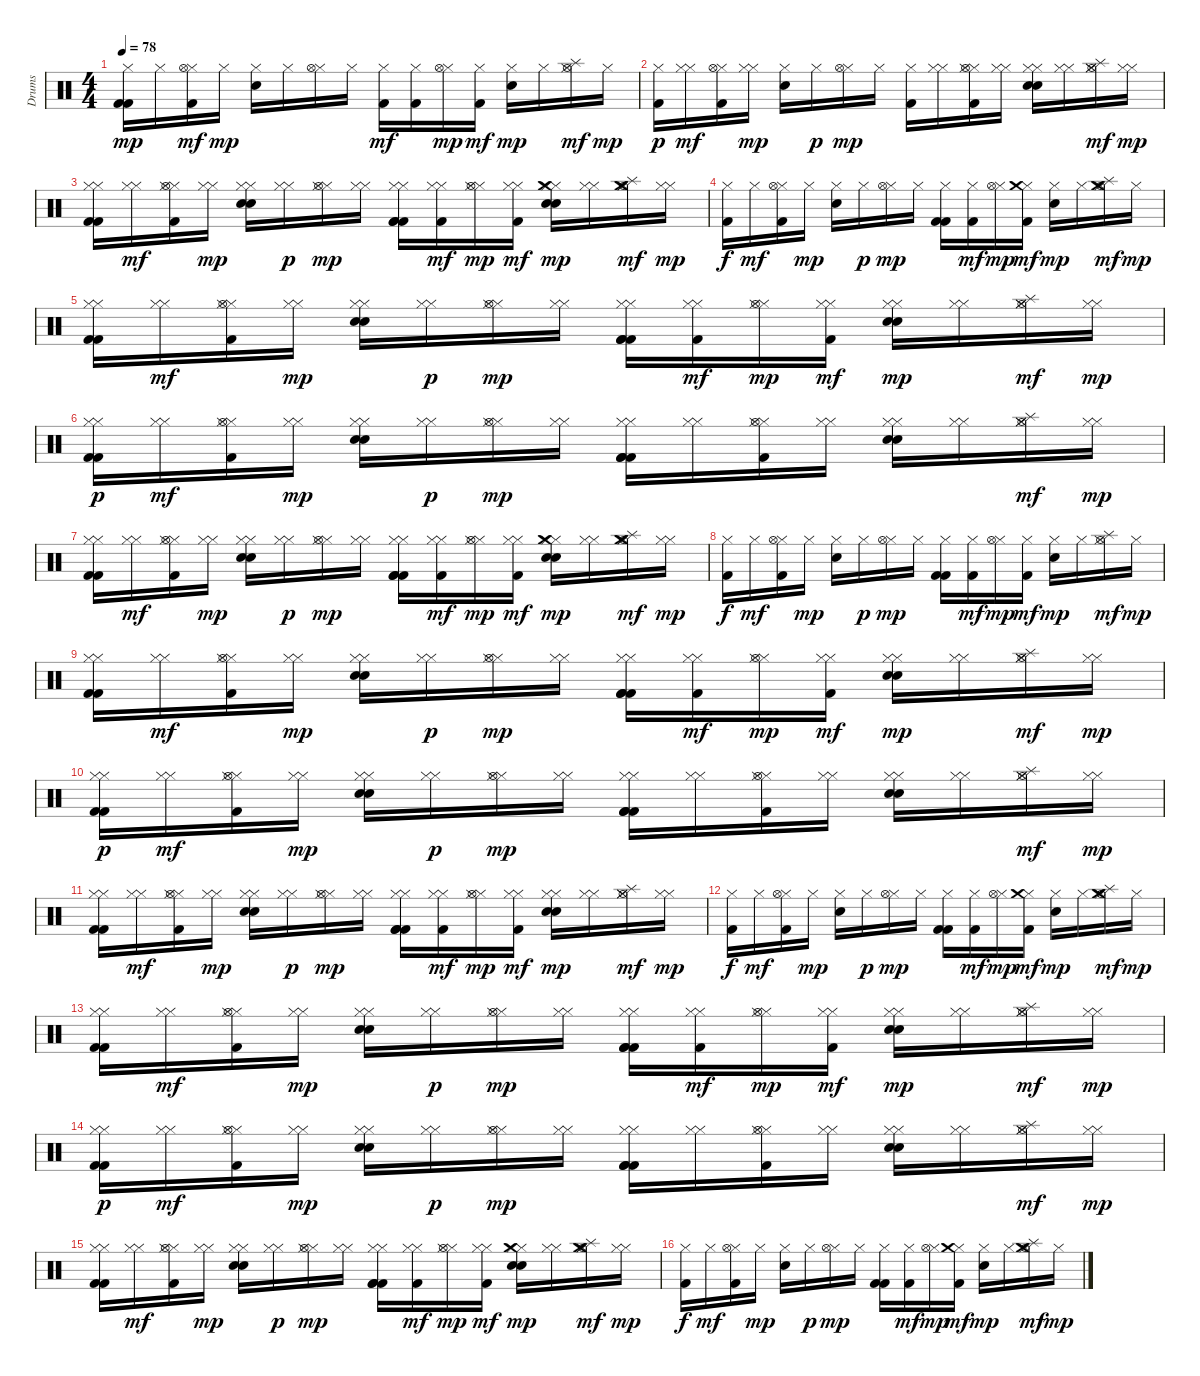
\track ("Drums" "Drums") {instrument percussion}
\staff {score}
\articulation defaults
\ts (4 4)
\tempo 78
\clef neutral
\ks c
("Kick (hit) 2" "Hi-Hat (closed)" "Kick (hit) 2").16{dy mp} "Hi-Hat (closed)".16 ("Hi-Hat (closed)" "Kick (hit) 2" "Hi-Hat (open)").16{dy mf} "Hi-Hat (closed)".16{dy mp} ("Snare (hit) 2" "Hi-Hat (closed)").16 "Hi-Hat (closed)".16 ("Hi-Hat (closed)" "Hi-Hat (open)").16 "Hi-Hat (closed)".16 ("Kick (hit) 2" "Hi-Hat (closed)").16{dy mf} ("Hi-Hat (closed)" "Kick (hit) 2").16 ("Hi-Hat (closed)" "Hi-Hat (open)").16{dy mp} ("Hi-Hat (closed)" "Kick (hit) 2").16{dy mf} ("Snare (hit) 2" "Hi-Hat (closed)").16{dy mp} "Hi-Hat (closed)".16 ("Hi-Hat (closed)" "Hi-Hat (open)" "Splash (hit)").16{dy mf} "Hi-Hat (closed)".16{dy mp} |
("Hi-Hat (closed)" "Kick (hit) 2").16{dy p} ("Hi-Hat (closed)" "Hi-Hat (closed)").16{dy mf} ("Hi-Hat (closed)" "Kick (hit) 2" "Hi-Hat (open)").16 ("Hi-Hat (closed)" "Hi-Hat (closed)").16{dy mp} ("Snare (hit) 2" "Hi-Hat (closed)").16 "Hi-Hat (closed)".16{dy p} ("Hi-Hat (closed)" "Hi-Hat (open)").16{dy mp} "Hi-Hat (closed)".16 ("Kick (hit) 2" "Hi-Hat (closed)").16 ("Hi-Hat (closed)" "Hi-Hat (closed)").16 ("Kick (hit) 2" "Hi-Hat (closed)" "Hi-Hat (closed)" "Hi-Hat (open)").16 ("Hi-Hat (closed)" "Hi-Hat (closed)").16 ("Snare (hit) 2" "Hi-Hat (closed)" "Snare (hit) 2" "Hi-Hat (closed)").16 ("Hi-Hat (closed)" "Hi-Hat (closed)").16 ("Hi-Hat (closed)" "Hi-Hat (closed)" "Hi-Hat (open)" "Splash (hit)").16{dy mf} ("Hi-Hat (closed)" "Hi-Hat (closed)").16{dy mp} |
("Kick (hit) 2" "Hi-Hat (closed)" "Kick (hit) 2" "Hi-Hat (closed)").16 ("Hi-Hat (closed)" "Hi-Hat (closed)").16{dy mf} ("Hi-Hat (closed)" "Hi-Hat (closed)" "Kick (hit) 2" "Hi-Hat (open)").16 ("Hi-Hat (closed)" "Hi-Hat (closed)").16{dy mp} ("Snare (hit) 2" "Hi-Hat (closed)" "Snare (hit) 2" "Hi-Hat (closed)").16 ("Hi-Hat (closed)" "Hi-Hat (closed)").16{dy p} ("Hi-Hat (closed)" "Hi-Hat (closed)" "Hi-Hat (open)").16{dy mp} ("Hi-Hat (closed)" "Hi-Hat (closed)").16 ("Kick (hit) 2" "Hi-Hat (closed)" "Kick (hit) 2" "Hi-Hat (closed)" "Kick (hit) 2").16 ("Hi-Hat (closed)" "Hi-Hat (closed)" "Kick (hit) 2").16{dy mf} ("Hi-Hat (closed)" "Hi-Hat (closed)" "Hi-Hat (open)").16{dy mp} ("Hi-Hat (closed)" "Hi-Hat (closed)" "Kick (hit) 2").16{dy mf} ("Snare (hit) 2" "Hi-Hat (closed)" "Snare (hit) 2" "Hi-Hat (closed)" "Crash medium (hit)").16{dy mp} ("Hi-Hat (closed)" "Hi-Hat (closed)").16 ("Hi-Hat (closed)" "Hi-Hat (closed)" "Hi-Hat (open)" "Splash (hit)" "Crash medium (hit)").16{dy mf} ("Hi-Hat (closed)" "Hi-Hat (closed)").16{dy mp} |
("Kick (hit) 2" "Hi-Hat (closed)").16{dy f} "Hi-Hat (closed)".16{dy mf} ("Hi-Hat (closed)" "Kick (hit) 2" "Hi-Hat (open)").16 "Hi-Hat (closed)".16{dy mp} ("Snare (hit) 2" "Hi-Hat (closed)").16 "Hi-Hat (closed)".16{dy p} ("Hi-Hat (closed)" "Hi-Hat (open)").16{dy mp} "Hi-Hat (closed)".16 ("Kick (hit) 2" "Hi-Hat (closed)" "Kick (hit) 2").16 ("Hi-Hat (closed)" "Kick (hit) 2").16{dy mf} ("Hi-Hat (closed)" "Hi-Hat (open)").16{dy mp} ("Hi-Hat (closed)" "Kick (hit) 2" "Crash medium (hit)").16{dy mf} ("Snare (hit) 2" "Hi-Hat (closed)").16{dy mp} "Hi-Hat (closed)".16 ("Crash medium (hit)" "Hi-Hat (closed)" "Hi-Hat (open)" "Splash (hit)").16{dy mf} "Hi-Hat (closed)".16{dy mp} |
("Kick (hit) 2" "Hi-Hat (closed)" "Kick (hit) 2" "Hi-Hat (closed)").16 ("Hi-Hat (closed)" "Hi-Hat (closed)").16{dy mf} ("Hi-Hat (closed)" "Hi-Hat (closed)" "Kick (hit) 2" "Hi-Hat (open)").16 ("Hi-Hat (closed)" "Hi-Hat (closed)").16{dy mp} ("Snare (hit) 2" "Hi-Hat (closed)" "Snare (hit) 2" "Hi-Hat (closed)").16 ("Hi-Hat (closed)" "Hi-Hat (closed)").16{dy p} ("Hi-Hat (closed)" "Hi-Hat (closed)" "Hi-Hat (open)").16{dy mp} ("Hi-Hat (closed)" "Hi-Hat (closed)").16 ("Kick (hit) 2" "Hi-Hat (closed)" "Kick (hit) 2" "Hi-Hat (closed)" "Kick (hit) 2").16 ("Hi-Hat (closed)" "Hi-Hat (closed)" "Kick (hit) 2").16{dy mf} ("Hi-Hat (closed)" "Hi-Hat (closed)" "Hi-Hat (open)").16{dy mp} ("Hi-Hat (closed)" "Hi-Hat (closed)" "Kick (hit) 2").16{dy mf} ("Snare (hit) 2" "Hi-Hat (closed)" "Snare (hit) 2" "Hi-Hat (closed)").16{dy mp} ("Hi-Hat (closed)" "Hi-Hat (closed)").16 ("Hi-Hat (closed)" "Hi-Hat (closed)" "Hi-Hat (open)" "Splash (hit)").16{dy mf} ("Hi-Hat (closed)" "Hi-Hat (closed)").16{dy mp} |
("Kick (hit) 2" "Hi-Hat (closed)" "Kick (hit) 2" "Hi-Hat (closed)").16{dy p} ("Hi-Hat (closed)" "Hi-Hat (closed)").16{dy mf} ("Hi-Hat (closed)" "Hi-Hat (closed)" "Kick (hit) 2" "Hi-Hat (open)").16 ("Hi-Hat (closed)" "Hi-Hat (closed)").16{dy mp} ("Snare (hit) 2" "Hi-Hat (closed)" "Snare (hit) 2" "Hi-Hat (closed)").16 ("Hi-Hat (closed)" "Hi-Hat (closed)").16{dy p} ("Hi-Hat (closed)" "Hi-Hat (closed)" "Hi-Hat (open)").16{dy mp} ("Hi-Hat (closed)" "Hi-Hat (closed)").16 ("Kick (hit) 2" "Hi-Hat (closed)" "Kick (hit) 2" "Hi-Hat (closed)" "Kick (hit) 2").16 ("Hi-Hat (closed)" "Hi-Hat (closed)").16 ("Kick (hit) 2" "Hi-Hat (closed)" "Hi-Hat (closed)" "Hi-Hat (open)").16 ("Hi-Hat (closed)" "Hi-Hat (closed)").16 ("Snare (hit) 2" "Hi-Hat (closed)" "Snare (hit) 2" "Hi-Hat (closed)").16 ("Hi-Hat (closed)" "Hi-Hat (closed)").16 ("Hi-Hat (closed)" "Hi-Hat (closed)" "Hi-Hat (open)" "Splash (hit)").16{dy mf} ("Hi-Hat (closed)" "Hi-Hat (closed)").16{dy mp} |
("Kick (hit) 2" "Hi-Hat (closed)" "Kick (hit) 2" "Hi-Hat (closed)").16 ("Hi-Hat (closed)" "Hi-Hat (closed)").16{dy mf} ("Hi-Hat (closed)" "Hi-Hat (closed)" "Kick (hit) 2" "Hi-Hat (open)").16 ("Hi-Hat (closed)" "Hi-Hat (closed)").16{dy mp} ("Snare (hit) 2" "Hi-Hat (closed)" "Snare (hit) 2" "Hi-Hat (closed)").16 ("Hi-Hat (closed)" "Hi-Hat (closed)").16{dy p} ("Hi-Hat (closed)" "Hi-Hat (closed)" "Hi-Hat (open)").16{dy mp} ("Hi-Hat (closed)" "Hi-Hat (closed)").16 ("Kick (hit) 2" "Hi-Hat (closed)" "Kick (hit) 2" "Hi-Hat (closed)" "Kick (hit) 2").16 ("Hi-Hat (closed)" "Hi-Hat (closed)" "Kick (hit) 2").16{dy mf} ("Hi-Hat (closed)" "Hi-Hat (closed)" "Hi-Hat (open)").16{dy mp} ("Hi-Hat (closed)" "Hi-Hat (closed)" "Kick (hit) 2").16{dy mf} ("Snare (hit) 2" "Hi-Hat (closed)" "Snare (hit) 2" "Hi-Hat (closed)" "Crash medium (hit)").16{dy mp} ("Hi-Hat (closed)" "Hi-Hat (closed)").16 ("Hi-Hat (closed)" "Hi-Hat (closed)" "Hi-Hat (open)" "Splash (hit)" "Crash medium (hit)").16{dy mf} ("Hi-Hat (closed)" "Hi-Hat (closed)").16{dy mp} |
("Kick (hit) 2" "Hi-Hat (closed)").16{dy f} "Hi-Hat (closed)".16{dy mf} ("Hi-Hat (closed)" "Kick (hit) 2" "Hi-Hat (open)").16 "Hi-Hat (closed)".16{dy mp} ("Snare (hit) 2" "Hi-Hat (closed)").16 "Hi-Hat (closed)".16{dy p} ("Hi-Hat (closed)" "Hi-Hat (open)").16{dy mp} "Hi-Hat (closed)".16 ("Kick (hit) 2" "Hi-Hat (closed)" "Kick (hit) 2").16 ("Hi-Hat (closed)" "Kick (hit) 2").16{dy mf} ("Hi-Hat (closed)" "Hi-Hat (open)").16{dy mp} ("Hi-Hat (closed)" "Kick (hit) 2").16{dy mf} ("Snare (hit) 2" "Hi-Hat (closed)").16{dy mp} "Hi-Hat (closed)".16 ("Hi-Hat (closed)" "Hi-Hat (open)" "Splash (hit)").16{dy mf} "Hi-Hat (closed)".16{dy mp} |
("Kick (hit) 2" "Hi-Hat (closed)" "Kick (hit) 2" "Hi-Hat (closed)").16 ("Hi-Hat (closed)" "Hi-Hat (closed)").16{dy mf} ("Hi-Hat (closed)" "Hi-Hat (closed)" "Kick (hit) 2" "Hi-Hat (open)").16 ("Hi-Hat (closed)" "Hi-Hat (closed)").16{dy mp} ("Snare (hit) 2" "Hi-Hat (closed)" "Snare (hit) 2" "Hi-Hat (closed)").16 ("Hi-Hat (closed)" "Hi-Hat (closed)").16{dy p} ("Hi-Hat (closed)" "Hi-Hat (closed)" "Hi-Hat (open)").16{dy mp} ("Hi-Hat (closed)" "Hi-Hat (closed)").16 ("Kick (hit) 2" "Hi-Hat (closed)" "Kick (hit) 2" "Hi-Hat (closed)" "Kick (hit) 2").16 ("Hi-Hat (closed)" "Hi-Hat (closed)" "Kick (hit) 2").16{dy mf} ("Hi-Hat (closed)" "Hi-Hat (closed)" "Hi-Hat (open)").16{dy mp} ("Hi-Hat (closed)" "Hi-Hat (closed)" "Kick (hit) 2").16{dy mf} ("Snare (hit) 2" "Hi-Hat (closed)" "Snare (hit) 2" "Hi-Hat (closed)").16{dy mp} ("Hi-Hat (closed)" "Hi-Hat (closed)").16 ("Hi-Hat (closed)" "Hi-Hat (closed)" "Hi-Hat (open)" "Splash (hit)").16{dy mf} ("Hi-Hat (closed)" "Hi-Hat (closed)").16{dy mp} |
("Kick (hit) 2" "Hi-Hat (closed)" "Kick (hit) 2" "Hi-Hat (closed)").16{dy p} ("Hi-Hat (closed)" "Hi-Hat (closed)").16{dy mf} ("Hi-Hat (closed)" "Hi-Hat (closed)" "Kick (hit) 2" "Hi-Hat (open)").16 ("Hi-Hat (closed)" "Hi-Hat (closed)").16{dy mp} ("Snare (hit) 2" "Hi-Hat (closed)" "Snare (hit) 2" "Hi-Hat (closed)").16 ("Hi-Hat (closed)" "Hi-Hat (closed)").16{dy p} ("Hi-Hat (closed)" "Hi-Hat (closed)" "Hi-Hat (open)").16{dy mp} ("Hi-Hat (closed)" "Hi-Hat (closed)").16 ("Kick (hit) 2" "Hi-Hat (closed)" "Kick (hit) 2" "Hi-Hat (closed)" "Kick (hit) 2").16 ("Hi-Hat (closed)" "Hi-Hat (closed)").16 ("Kick (hit) 2" "Hi-Hat (closed)" "Hi-Hat (closed)" "Hi-Hat (open)").16 ("Hi-Hat (closed)" "Hi-Hat (closed)").16 ("Snare (hit) 2" "Hi-Hat (closed)" "Snare (hit) 2" "Hi-Hat (closed)").16 ("Hi-Hat (closed)" "Hi-Hat (closed)").16 ("Hi-Hat (closed)" "Hi-Hat (closed)" "Hi-Hat (open)" "Splash (hit)").16{dy mf} ("Hi-Hat (closed)" "Hi-Hat (closed)").16{dy mp} |
("Kick (hit) 2" "Hi-Hat (closed)" "Kick (hit) 2" "Hi-Hat (closed)").16 ("Hi-Hat (closed)" "Hi-Hat (closed)").16{dy mf} ("Hi-Hat (closed)" "Hi-Hat (closed)" "Kick (hit) 2" "Hi-Hat (open)").16 ("Hi-Hat (closed)" "Hi-Hat (closed)").16{dy mp} ("Snare (hit) 2" "Hi-Hat (closed)" "Snare (hit) 2" "Hi-Hat (closed)").16 ("Hi-Hat (closed)" "Hi-Hat (closed)").16{dy p} ("Hi-Hat (closed)" "Hi-Hat (closed)" "Hi-Hat (open)").16{dy mp} ("Hi-Hat (closed)" "Hi-Hat (closed)").16 ("Kick (hit) 2" "Hi-Hat (closed)" "Kick (hit) 2" "Hi-Hat (closed)" "Kick (hit) 2").16 ("Hi-Hat (closed)" "Hi-Hat (closed)" "Kick (hit) 2").16{dy mf} ("Hi-Hat (closed)" "Hi-Hat (closed)" "Hi-Hat (open)").16{dy mp} ("Hi-Hat (closed)" "Hi-Hat (closed)" "Kick (hit) 2").16{dy mf} ("Snare (hit) 2" "Hi-Hat (closed)" "Snare (hit) 2" "Hi-Hat (closed)").16{dy mp} ("Hi-Hat (closed)" "Hi-Hat (closed)").16 ("Hi-Hat (closed)" "Hi-Hat (closed)" "Hi-Hat (open)" "Splash (hit)").16{dy mf} ("Hi-Hat (closed)" "Hi-Hat (closed)").16{dy mp} |
("Kick (hit) 2" "Hi-Hat (closed)").16{dy f} "Hi-Hat (closed)".16{dy mf} ("Hi-Hat (closed)" "Kick (hit) 2" "Hi-Hat (open)").16 "Hi-Hat (closed)".16{dy mp} ("Snare (hit) 2" "Hi-Hat (closed)").16 "Hi-Hat (closed)".16{dy p} ("Hi-Hat (closed)" "Hi-Hat (open)").16{dy mp} "Hi-Hat (closed)".16 ("Kick (hit) 2" "Hi-Hat (closed)" "Kick (hit) 2").16 ("Hi-Hat (closed)" "Kick (hit) 2").16{dy mf} ("Hi-Hat (closed)" "Hi-Hat (open)").16{dy mp} ("Hi-Hat (closed)" "Kick (hit) 2" "Crash medium (hit)").16{dy mf} ("Snare (hit) 2" "Hi-Hat (closed)").16{dy mp} "Hi-Hat (closed)".16 ("Crash medium (hit)" "Hi-Hat (closed)" "Hi-Hat (open)" "Splash (hit)").16{dy mf} "Hi-Hat (closed)".16{dy mp} |
("Kick (hit) 2" "Hi-Hat (closed)" "Kick (hit) 2" "Hi-Hat (closed)").16 ("Hi-Hat (closed)" "Hi-Hat (closed)").16{dy mf} ("Hi-Hat (closed)" "Hi-Hat (closed)" "Kick (hit) 2" "Hi-Hat (open)").16 ("Hi-Hat (closed)" "Hi-Hat (closed)").16{dy mp} ("Snare (hit) 2" "Hi-Hat (closed)" "Snare (hit) 2" "Hi-Hat (closed)").16 ("Hi-Hat (closed)" "Hi-Hat (closed)").16{dy p} ("Hi-Hat (closed)" "Hi-Hat (closed)" "Hi-Hat (open)").16{dy mp} ("Hi-Hat (closed)" "Hi-Hat (closed)").16 ("Kick (hit) 2" "Hi-Hat (closed)" "Kick (hit) 2" "Hi-Hat (closed)" "Kick (hit) 2").16 ("Hi-Hat (closed)" "Hi-Hat (closed)" "Kick (hit) 2").16{dy mf} ("Hi-Hat (closed)" "Hi-Hat (closed)" "Hi-Hat (open)").16{dy mp} ("Hi-Hat (closed)" "Hi-Hat (closed)" "Kick (hit) 2").16{dy mf} ("Snare (hit) 2" "Hi-Hat (closed)" "Snare (hit) 2" "Hi-Hat (closed)").16{dy mp} ("Hi-Hat (closed)" "Hi-Hat (closed)").16 ("Hi-Hat (closed)" "Hi-Hat (closed)" "Hi-Hat (open)" "Splash (hit)").16{dy mf} ("Hi-Hat (closed)" "Hi-Hat (closed)").16{dy mp} |
("Kick (hit) 2" "Hi-Hat (closed)" "Kick (hit) 2" "Hi-Hat (closed)").16{dy p} ("Hi-Hat (closed)" "Hi-Hat (closed)").16{dy mf} ("Hi-Hat (closed)" "Hi-Hat (closed)" "Kick (hit) 2" "Hi-Hat (open)").16 ("Hi-Hat (closed)" "Hi-Hat (closed)").16{dy mp} ("Snare (hit) 2" "Hi-Hat (closed)" "Snare (hit) 2" "Hi-Hat (closed)").16 ("Hi-Hat (closed)" "Hi-Hat (closed)").16{dy p} ("Hi-Hat (closed)" "Hi-Hat (closed)" "Hi-Hat (open)").16{dy mp} ("Hi-Hat (closed)" "Hi-Hat (closed)").16 ("Kick (hit) 2" "Hi-Hat (closed)" "Kick (hit) 2" "Hi-Hat (closed)" "Kick (hit) 2").16 ("Hi-Hat (closed)" "Hi-Hat (closed)").16 ("Kick (hit) 2" "Hi-Hat (closed)" "Hi-Hat (closed)" "Hi-Hat (open)").16 ("Hi-Hat (closed)" "Hi-Hat (closed)").16 ("Snare (hit) 2" "Hi-Hat (closed)" "Snare (hit) 2" "Hi-Hat (closed)").16 ("Hi-Hat (closed)" "Hi-Hat (closed)").16 ("Hi-Hat (closed)" "Hi-Hat (closed)" "Hi-Hat (open)" "Splash (hit)").16{dy mf} ("Hi-Hat (closed)" "Hi-Hat (closed)").16{dy mp} |
("Kick (hit) 2" "Hi-Hat (closed)" "Kick (hit) 2" "Hi-Hat (closed)").16 ("Hi-Hat (closed)" "Hi-Hat (closed)").16{dy mf} ("Hi-Hat (closed)" "Hi-Hat (closed)" "Kick (hit) 2" "Hi-Hat (open)").16 ("Hi-Hat (closed)" "Hi-Hat (closed)").16{dy mp} ("Snare (hit) 2" "Hi-Hat (closed)" "Snare (hit) 2" "Hi-Hat (closed)").16 ("Hi-Hat (closed)" "Hi-Hat (closed)").16{dy p} ("Hi-Hat (closed)" "Hi-Hat (closed)" "Hi-Hat (open)").16{dy mp} ("Hi-Hat (closed)" "Hi-Hat (closed)").16 ("Kick (hit) 2" "Hi-Hat (closed)" "Kick (hit) 2" "Hi-Hat (closed)" "Kick (hit) 2").16 ("Hi-Hat (closed)" "Hi-Hat (closed)" "Kick (hit) 2").16{dy mf} ("Hi-Hat (closed)" "Hi-Hat (closed)" "Hi-Hat (open)").16{dy mp} ("Hi-Hat (closed)" "Hi-Hat (closed)" "Kick (hit) 2").16{dy mf} ("Snare (hit) 2" "Hi-Hat (closed)" "Snare (hit) 2" "Hi-Hat (closed)" "Crash medium (hit)").16{dy mp} ("Hi-Hat (closed)" "Hi-Hat (closed)").16 ("Hi-Hat (closed)" "Hi-Hat (closed)" "Hi-Hat (open)" "Splash (hit)" "Crash medium (hit)").16{dy mf} ("Hi-Hat (closed)" "Hi-Hat (closed)").16{dy mp} |
("Kick (hit) 2" "Hi-Hat (closed)").16{dy f} "Hi-Hat (closed)".16{dy mf} ("Hi-Hat (closed)" "Kick (hit) 2" "Hi-Hat (open)").16 "Hi-Hat (closed)".16{dy mp} ("Snare (hit) 2" "Hi-Hat (closed)").16 "Hi-Hat (closed)".16{dy p} ("Hi-Hat (closed)" "Hi-Hat (open)").16{dy mp} "Hi-Hat (closed)".16 ("Kick (hit) 2" "Hi-Hat (closed)" "Kick (hit) 2").16 ("Hi-Hat (closed)" "Kick (hit) 2").16{dy mf} ("Hi-Hat (closed)" "Hi-Hat (open)").16{dy mp} ("Hi-Hat (closed)" "Kick (hit) 2" "Crash medium (hit)").16{dy mf} ("Snare (hit) 2" "Hi-Hat (closed)").16{dy mp} "Hi-Hat (closed)".16 ("Crash medium (hit)" "Hi-Hat (closed)" "Hi-Hat (open)" "Splash (hit)").16{dy mf} "Hi-Hat (closed)".16{dy mp}
